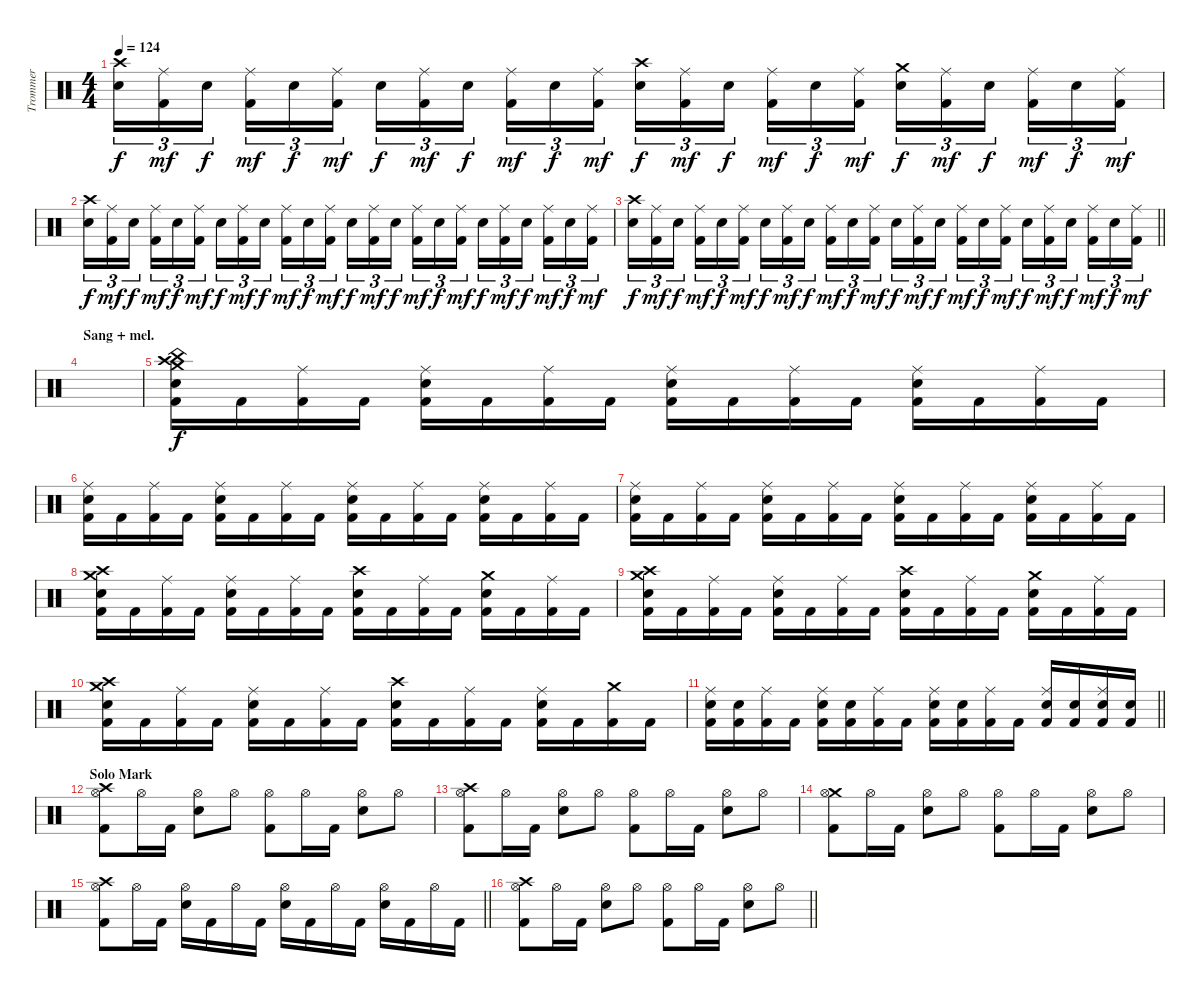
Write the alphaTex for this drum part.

\track ("Trommer" "Trommer") {instrument percussion}
\staff {score}
\articulation defaults
\ts (4 4)
\tempo 124
\clef neutral
\ks c
("Crash high (hit)" "Snare (hit) 2").16{tu (3 2) dy f} ("Ride (middle)" "Kick (hit) 2").16{tu (3 2) dy mf} "Snare (hit) 2".16{tu (3 2) dy f beam splitsecondary} ("Ride (middle)" "Kick (hit) 2").16{tu (3 2) dy mf} "Snare (hit) 2".16{tu (3 2) dy f} ("Ride (middle)" "Kick (hit) 2").16{tu (3 2) dy mf} "Snare (hit) 2".16{tu (3 2) dy f} ("Ride (middle)" "Kick (hit) 2").16{tu (3 2) dy mf} "Snare (hit) 2".16{tu (3 2) dy f beam splitsecondary} ("Ride (middle)" "Kick (hit) 2").16{tu (3 2) dy mf} "Snare (hit) 2".16{tu (3 2) dy f} ("Ride (middle)" "Kick (hit) 2").16{tu (3 2) dy mf} ("Crash high (hit)" "Snare (hit) 2").16{tu (3 2) dy f} ("Ride (middle)" "Kick (hit) 2").16{tu (3 2) dy mf} "Snare (hit) 2".16{tu (3 2) dy f beam splitsecondary} ("Ride (middle)" "Kick (hit) 2").16{tu (3 2) dy mf} "Snare (hit) 2".16{tu (3 2) dy f} ("Ride (middle)" "Kick (hit) 2").16{tu (3 2) dy mf} ("Crash medium (hit)" "Snare (hit) 2").16{tu (3 2) dy f} ("Ride (middle)" "Kick (hit) 2").16{tu (3 2) dy mf} "Snare (hit) 2".16{tu (3 2) dy f beam splitsecondary} ("Ride (middle)" "Kick (hit) 2").16{tu (3 2) dy mf} "Snare (hit) 2".16{tu (3 2) dy f} ("Ride (middle)" "Kick (hit) 2").16{tu (3 2) dy mf} |
("Crash high (hit)" "Snare (hit) 2").16{tu (3 2) dy f} ("Ride (middle)" "Kick (hit) 2").16{tu (3 2) dy mf} "Snare (hit) 2".16{tu (3 2) dy f beam splitsecondary} ("Ride (middle)" "Kick (hit) 2").16{tu (3 2) dy mf} "Snare (hit) 2".16{tu (3 2) dy f} ("Ride (middle)" "Kick (hit) 2").16{tu (3 2) dy mf} "Snare (hit) 2".16{tu (3 2) dy f} ("Ride (middle)" "Kick (hit) 2").16{tu (3 2) dy mf} "Snare (hit) 2".16{tu (3 2) dy f beam splitsecondary} ("Ride (middle)" "Kick (hit) 2").16{tu (3 2) dy mf} "Snare (hit) 2".16{tu (3 2) dy f} ("Ride (middle)" "Kick (hit) 2").16{tu (3 2) dy mf} "Snare (hit) 2".16{tu (3 2) dy f} ("Ride (middle)" "Kick (hit) 2").16{tu (3 2) dy mf} "Snare (hit) 2".16{tu (3 2) dy f beam splitsecondary} ("Ride (middle)" "Kick (hit) 2").16{tu (3 2) dy mf} "Snare (hit) 2".16{tu (3 2) dy f} ("Ride (middle)" "Kick (hit) 2").16{tu (3 2) dy mf} "Snare (hit) 2".16{tu (3 2) dy f} ("Ride (middle)" "Kick (hit) 2").16{tu (3 2) dy mf} "Snare (hit) 2".16{tu (3 2) dy f beam splitsecondary} ("Ride (middle)" "Kick (hit) 2").16{tu (3 2) dy mf} "Snare (hit) 2".16{tu (3 2) dy f} ("Ride (middle)" "Kick (hit) 2").16{tu (3 2) dy mf} |
\barLineRight lightlight
("Crash high (hit)" "Snare (hit) 2").16{tu (3 2) dy f} ("Ride (middle)" "Kick (hit) 2").16{tu (3 2) dy mf} "Snare (hit) 2".16{tu (3 2) dy f beam splitsecondary} ("Ride (middle)" "Kick (hit) 2").16{tu (3 2) dy mf} "Snare (hit) 2".16{tu (3 2) dy f} ("Ride (middle)" "Kick (hit) 2").16{tu (3 2) dy mf} "Snare (hit) 2".16{tu (3 2) dy f} ("Ride (middle)" "Kick (hit) 2").16{tu (3 2) dy mf} "Snare (hit) 2".16{tu (3 2) dy f beam splitsecondary} ("Ride (middle)" "Kick (hit) 2").16{tu (3 2) dy mf} "Snare (hit) 2".16{tu (3 2) dy f} ("Ride (middle)" "Kick (hit) 2").16{tu (3 2) dy mf} "Snare (hit) 2".16{tu (3 2) dy f} ("Ride (middle)" "Kick (hit) 2").16{tu (3 2) dy mf} "Snare (hit) 2".16{tu (3 2) dy f beam splitsecondary} ("Ride (middle)" "Kick (hit) 2").16{tu (3 2) dy mf} "Snare (hit) 2".16{tu (3 2) dy f} ("Ride (middle)" "Kick (hit) 2").16{tu (3 2) dy mf} "Snare (hit) 2".16{tu (3 2) dy f} ("Ride (middle)" "Kick (hit) 2").16{tu (3 2) dy mf} "Snare (hit) 2".16{tu (3 2) dy f beam splitsecondary} ("Ride (middle)" "Kick (hit) 2").16{tu (3 2) dy mf} "Snare (hit) 2".16{tu (3 2) dy f} ("Ride (middle)" "Kick (hit) 2").16{tu (3 2) dy mf} |
\section ("" "Sang + mel.")
|
("Crash high (hit)" "Crash medium (hit)" "China (hit)" "Snare (hit) 2" "Kick (hit) 2").16{dy f} "Kick (hit) 2".16 ("Ride (middle)" "Kick (hit) 2").16 "Kick (hit) 2".16 ("Ride (middle)" "Snare (hit) 2" "Kick (hit) 2").16 "Kick (hit) 2".16 ("Ride (middle)" "Kick (hit) 2").16 "Kick (hit) 2".16 ("Ride (middle)" "Snare (hit) 2" "Kick (hit) 2").16 "Kick (hit) 2".16 ("Ride (middle)" "Kick (hit) 2").16 "Kick (hit) 2".16 ("Ride (middle)" "Snare (hit) 2" "Kick (hit) 2").16 "Kick (hit) 2".16 ("Ride (middle)" "Kick (hit) 2").16 "Kick (hit) 2".16 |
("Ride (middle)" "Snare (hit) 2" "Kick (hit) 2").16 "Kick (hit) 2".16 ("Ride (middle)" "Kick (hit) 2").16 "Kick (hit) 2".16 ("Ride (middle)" "Snare (hit) 2" "Kick (hit) 2").16 "Kick (hit) 2".16 ("Ride (middle)" "Kick (hit) 2").16 "Kick (hit) 2".16 ("Ride (middle)" "Snare (hit) 2" "Kick (hit) 2").16 "Kick (hit) 2".16 ("Ride (middle)" "Kick (hit) 2").16 "Kick (hit) 2".16 ("Ride (middle)" "Snare (hit) 2" "Kick (hit) 2").16 "Kick (hit) 2".16 ("Ride (middle)" "Kick (hit) 2").16 "Kick (hit) 2".16 |
("Ride (middle)" "Snare (hit) 2" "Kick (hit) 2").16 "Kick (hit) 2".16 ("Ride (middle)" "Kick (hit) 2").16 "Kick (hit) 2".16 ("Ride (middle)" "Snare (hit) 2" "Kick (hit) 2").16 "Kick (hit) 2".16 ("Ride (middle)" "Kick (hit) 2").16 "Kick (hit) 2".16 ("Ride (middle)" "Snare (hit) 2" "Kick (hit) 2").16 "Kick (hit) 2".16 ("Ride (middle)" "Kick (hit) 2").16 "Kick (hit) 2".16 ("Ride (middle)" "Snare (hit) 2" "Kick (hit) 2").16 "Kick (hit) 2".16 ("Ride (middle)" "Kick (hit) 2").16 "Kick (hit) 2".16 |
("Crash high (hit)" "Crash medium (hit)" "Snare (hit) 2" "Kick (hit) 2").16 "Kick (hit) 2".16 ("Ride (middle)" "Kick (hit) 2").16 "Kick (hit) 2".16 ("Ride (middle)" "Snare (hit) 2" "Kick (hit) 2").16 "Kick (hit) 2".16 ("Ride (middle)" "Kick (hit) 2").16 "Kick (hit) 2".16 ("Crash high (hit)" "Snare (hit) 2" "Kick (hit) 2").16 "Kick (hit) 2".16 ("Ride (middle)" "Kick (hit) 2").16 "Kick (hit) 2".16 ("Crash medium (hit)" "Snare (hit) 2" "Kick (hit) 2").16 "Kick (hit) 2".16 ("Ride (middle)" "Kick (hit) 2").16 "Kick (hit) 2".16 |
("Crash high (hit)" "Crash medium (hit)" "Snare (hit) 2" "Kick (hit) 2").16 "Kick (hit) 2".16 ("Ride (middle)" "Kick (hit) 2").16 "Kick (hit) 2".16 ("Ride (middle)" "Snare (hit) 2" "Kick (hit) 2").16 "Kick (hit) 2".16 ("Ride (middle)" "Kick (hit) 2").16 "Kick (hit) 2".16 ("Crash high (hit)" "Snare (hit) 2" "Kick (hit) 2").16 "Kick (hit) 2".16 ("Ride (middle)" "Kick (hit) 2").16 "Kick (hit) 2".16 ("Crash medium (hit)" "Snare (hit) 2" "Kick (hit) 2").16 "Kick (hit) 2".16 ("Ride (middle)" "Kick (hit) 2").16 "Kick (hit) 2".16 |
("Crash high (hit)" "Crash medium (hit)" "Snare (hit) 2" "Kick (hit) 2").16 "Kick (hit) 2".16 ("Ride (middle)" "Kick (hit) 2").16 "Kick (hit) 2".16 ("Ride (middle)" "Snare (hit) 2" "Kick (hit) 2").16 "Kick (hit) 2".16 ("Ride (middle)" "Kick (hit) 2").16 "Kick (hit) 2".16 ("Crash high (hit)" "Snare (hit) 2" "Kick (hit) 2").16 "Kick (hit) 2".16 ("Ride (middle)" "Kick (hit) 2").16 "Kick (hit) 2".16 ("Ride (middle)" "Snare (hit) 2" "Kick (hit) 2").16 "Kick (hit) 2".16 ("Crash medium (hit)" "Kick (hit) 2").16 "Kick (hit) 2".16 |
\barLineRight lightlight
("Ride (middle)" "Snare (hit) 2" "Kick (hit) 2").16 ("Snare (hit) 2" "Kick (hit) 2").16 ("Ride (middle)" "Kick (hit) 2").16 "Kick (hit) 2".16 ("Ride (middle)" "Snare (hit) 2" "Kick (hit) 2").16 ("Snare (hit) 2" "Kick (hit) 2").16 ("Ride (middle)" "Kick (hit) 2").16 "Kick (hit) 2".16 ("Ride (middle)" "Snare (hit) 2" "Kick (hit) 2").16 ("Snare (hit) 2" "Kick (hit) 2").16 ("Ride (middle)" "Kick (hit) 2").16 "Kick (hit) 2".16 ("Ride (middle)" "Snare (hit) 2" "Kick (hit) 2").16 ("Snare (hit) 2" "Kick (hit) 2").16 ("Ride (middle)" "Snare (hit) 2" "Kick (hit) 2").16 ("Snare (hit) 2" "Kick (hit) 2").16 |
\section ("" "Solo Mark")
("Crash high (hit)" "Hi-Hat (open)" "Kick (hit) 2").8 "Hi-Hat (open)".16 "Kick (hit) 2".16 ("Hi-Hat (open)" "Electric Snare (hit)").8 "Hi-Hat (open)".8 ("Hi-Hat (open)" "Kick (hit) 2").8 "Hi-Hat (open)".16 "Kick (hit) 2".16 ("Hi-Hat (open)" "Electric Snare (hit)").8 "Hi-Hat (open)".8 |
("Crash high (hit)" "Hi-Hat (open)" "Kick (hit) 2").8 "Hi-Hat (open)".16 "Kick (hit) 2".16 ("Hi-Hat (open)" "Electric Snare (hit)").8 "Hi-Hat (open)".8 ("Hi-Hat (open)" "Kick (hit) 2").8 "Hi-Hat (open)".16 "Kick (hit) 2".16 ("Hi-Hat (open)" "Electric Snare (hit)").8 "Hi-Hat (open)".8 |
("Crash medium (hit)" "Hi-Hat (open)" "Kick (hit) 2").8 "Hi-Hat (open)".16 "Kick (hit) 2".16 ("Hi-Hat (open)" "Electric Snare (hit)").8 "Hi-Hat (open)".8 ("Hi-Hat (open)" "Kick (hit) 2").8 "Hi-Hat (open)".16 "Kick (hit) 2".16 ("Hi-Hat (open)" "Electric Snare (hit)").8 "Hi-Hat (open)".8 |
\barLineRight lightlight
("Crash high (hit)" "Hi-Hat (open)" "Kick (hit) 2").8 "Hi-Hat (open)".16 "Kick (hit) 2".16 ("Hi-Hat (open)" "Electric Snare (hit)").16 "Kick (hit) 2".16 "Hi-Hat (open)".16 "Kick (hit) 2".16 ("Hi-Hat (open)" "Electric Snare (hit)").16 "Kick (hit) 2".16 "Hi-Hat (open)".16 "Kick (hit) 2".16 ("Hi-Hat (open)" "Electric Snare (hit)").16 "Kick (hit) 2".16 "Hi-Hat (open)".16 "Kick (hit) 2".16 |
\barLineRight lightlight
("Crash high (hit)" "Hi-Hat (open)" "Kick (hit) 2").8 "Hi-Hat (open)".16 "Kick (hit) 2".16 ("Hi-Hat (open)" "Electric Snare (hit)").8 "Hi-Hat (open)".8 ("Hi-Hat (open)" "Kick (hit) 2").8 "Hi-Hat (open)".16 "Kick (hit) 2".16 ("Hi-Hat (open)" "Electric Snare (hit)").8 "Hi-Hat (open)".8
